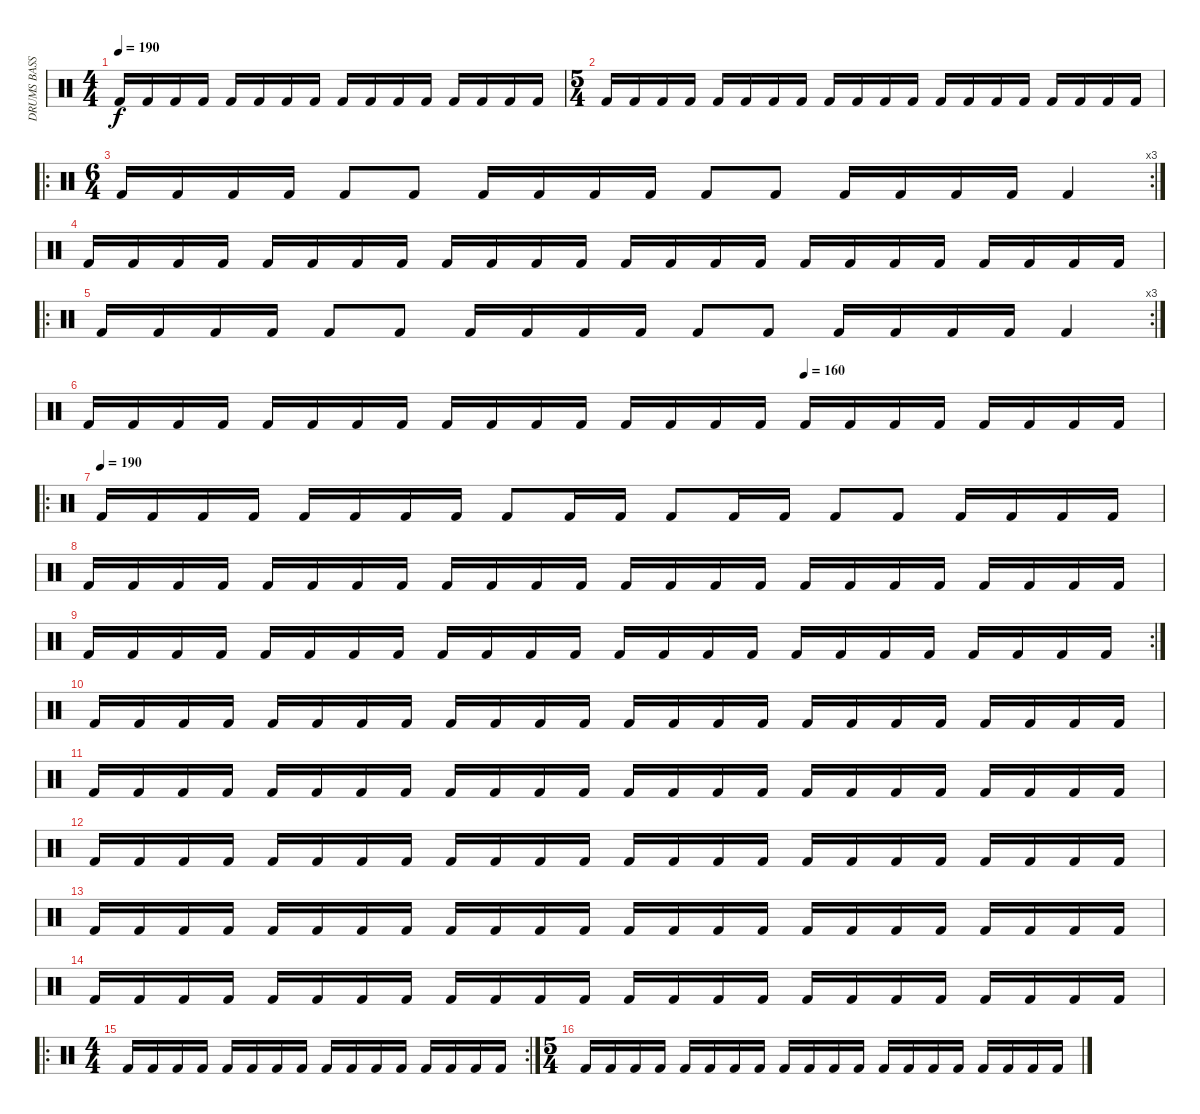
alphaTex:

\track ("DRUMS BASS" "DRUMS BASS") {instrument percussion}
\staff {score}
\articulation defaults
\ts (4 4)
\tempo 190
\clef neutral
\ks c "Kick (hit) 2".16{dy f} "Kick (hit) 2".16 "Kick (hit) 2".16 "Kick (hit) 2".16 "Kick (hit) 2".16 "Kick (hit) 2".16 "Kick (hit) 2".16 "Kick (hit) 2".16 "Kick (hit) 2".16 "Kick (hit) 2".16 "Kick (hit) 2".16 "Kick (hit) 2".16 "Kick (hit) 2".16 "Kick (hit) 2".16 "Kick (hit) 2".16 "Kick (hit) 2".16
|
\ts (5 4)
"Kick (hit) 2".16 "Kick (hit) 2".16 "Kick (hit) 2".16 "Kick (hit) 2".16 "Kick (hit) 2".16 "Kick (hit) 2".16 "Kick (hit) 2".16 "Kick (hit) 2".16 "Kick (hit) 2".16 "Kick (hit) 2".16 "Kick (hit) 2".16 "Kick (hit) 2".16 "Kick (hit) 2".16 "Kick (hit) 2".16 "Kick (hit) 2".16 "Kick (hit) 2".16 "Kick (hit) 2".16 "Kick (hit) 2".16 "Kick (hit) 2".16 "Kick (hit) 2".16 |
\ro
\rc 3
\ts (6 4)
"Kick (hit) 2".16 "Kick (hit) 2".16 "Kick (hit) 2".16 "Kick (hit) 2".16 "Kick (hit) 2".8 "Kick (hit) 2".8 "Kick (hit) 2".16 "Kick (hit) 2".16 "Kick (hit) 2".16 "Kick (hit) 2".16 "Kick (hit) 2".8 "Kick (hit) 2".8 "Kick (hit) 2".16 "Kick (hit) 2".16 "Kick (hit) 2".16 "Kick (hit) 2".16 "Kick (hit) 2".4 |
"Kick (hit) 2".16 "Kick (hit) 2".16 "Kick (hit) 2".16 "Kick (hit) 2".16 "Kick (hit) 2".16 "Kick (hit) 2".16 "Kick (hit) 2".16 "Kick (hit) 2".16 "Kick (hit) 2".16 "Kick (hit) 2".16 "Kick (hit) 2".16 "Kick (hit) 2".16 "Kick (hit) 2".16 "Kick (hit) 2".16 "Kick (hit) 2".16 "Kick (hit) 2".16 "Kick (hit) 2".16 "Kick (hit) 2".16 "Kick (hit) 2".16 "Kick (hit) 2".16 "Kick (hit) 2".16 "Kick (hit) 2".16 "Kick (hit) 2".16 "Kick (hit) 2".16 |
\ro
\rc 3 "Kick (hit) 2".16 "Kick (hit) 2".16 "Kick (hit) 2".16 "Kick (hit) 2".16 "Kick (hit) 2".8 "Kick (hit) 2".8 "Kick (hit) 2".16 "Kick (hit) 2".16 "Kick (hit) 2".16 "Kick (hit) 2".16 "Kick (hit) 2".8 "Kick (hit) 2".8 "Kick (hit) 2".16 "Kick (hit) 2".16 "Kick (hit) 2".16 "Kick (hit) 2".16 "Kick (hit) 2".4
|
\tempo (160 0.6666666666666666)
"Kick (hit) 2".16 "Kick (hit) 2".16 "Kick (hit) 2".16 "Kick (hit) 2".16 "Kick (hit) 2".16 "Kick (hit) 2".16 "Kick (hit) 2".16 "Kick (hit) 2".16 "Kick (hit) 2".16 "Kick (hit) 2".16 "Kick (hit) 2".16 "Kick (hit) 2".16 "Kick (hit) 2".16 "Kick (hit) 2".16 "Kick (hit) 2".16 "Kick (hit) 2".16 "Kick (hit) 2".16 "Kick (hit) 2".16 "Kick (hit) 2".16 "Kick (hit) 2".16 "Kick (hit) 2".16 "Kick (hit) 2".16 "Kick (hit) 2".16 "Kick (hit) 2".16 |
\ro
\tempo (190)
"Kick (hit) 2".16 "Kick (hit) 2".16 "Kick (hit) 2".16 "Kick (hit) 2".16 "Kick (hit) 2".16 "Kick (hit) 2".16 "Kick (hit) 2".16 "Kick (hit) 2".16 "Kick (hit) 2".8 "Kick (hit) 2".16 "Kick (hit) 2".16 "Kick (hit) 2".8 "Kick (hit) 2".16 "Kick (hit) 2".16 "Kick (hit) 2".8 "Kick (hit) 2".8 "Kick (hit) 2".16 "Kick (hit) 2".16 "Kick (hit) 2".16 "Kick (hit) 2".16 |
"Kick (hit) 2".16 "Kick (hit) 2".16 "Kick (hit) 2".16 "Kick (hit) 2".16 "Kick (hit) 2".16 "Kick (hit) 2".16 "Kick (hit) 2".16 "Kick (hit) 2".16 "Kick (hit) 2".16 "Kick (hit) 2".16 "Kick (hit) 2".16 "Kick (hit) 2".16 "Kick (hit) 2".16 "Kick (hit) 2".16 "Kick (hit) 2".16 "Kick (hit) 2".16 "Kick (hit) 2".16 "Kick (hit) 2".16 "Kick (hit) 2".16 "Kick (hit) 2".16 "Kick (hit) 2".16 "Kick (hit) 2".16 "Kick (hit) 2".16 "Kick (hit) 2".16 |
\rc 2 "Kick (hit) 2".16 "Kick (hit) 2".16 "Kick (hit) 2".16 "Kick (hit) 2".16 "Kick (hit) 2".16 "Kick (hit) 2".16 "Kick (hit) 2".16 "Kick (hit) 2".16 "Kick (hit) 2".16 "Kick (hit) 2".16 "Kick (hit) 2".16 "Kick (hit) 2".16 "Kick (hit) 2".16 "Kick (hit) 2".16 "Kick (hit) 2".16 "Kick (hit) 2".16 "Kick (hit) 2".16 "Kick (hit) 2".16 "Kick (hit) 2".16 "Kick (hit) 2".16 "Kick (hit) 2".16 "Kick (hit) 2".16 "Kick (hit) 2".16 "Kick (hit) 2".16
|
"Kick (hit) 2".16 "Kick (hit) 2".16 "Kick (hit) 2".16 "Kick (hit) 2".16 "Kick (hit) 2".16 "Kick (hit) 2".16 "Kick (hit) 2".16 "Kick (hit) 2".16 "Kick (hit) 2".16 "Kick (hit) 2".16 "Kick (hit) 2".16 "Kick (hit) 2".16 "Kick (hit) 2".16 "Kick (hit) 2".16 "Kick (hit) 2".16 "Kick (hit) 2".16 "Kick (hit) 2".16 "Kick (hit) 2".16 "Kick (hit) 2".16 "Kick (hit) 2".16 "Kick (hit) 2".16 "Kick (hit) 2".16 "Kick (hit) 2".16 "Kick (hit) 2".16 |
"Kick (hit) 2".16 "Kick (hit) 2".16 "Kick (hit) 2".16 "Kick (hit) 2".16 "Kick (hit) 2".16 "Kick (hit) 2".16 "Kick (hit) 2".16 "Kick (hit) 2".16 "Kick (hit) 2".16 "Kick (hit) 2".16 "Kick (hit) 2".16 "Kick (hit) 2".16 "Kick (hit) 2".16 "Kick (hit) 2".16 "Kick (hit) 2".16 "Kick (hit) 2".16 "Kick (hit) 2".16 "Kick (hit) 2".16 "Kick (hit) 2".16 "Kick (hit) 2".16 "Kick (hit) 2".16 "Kick (hit) 2".16 "Kick (hit) 2".16 "Kick (hit) 2".16 |
"Kick (hit) 2".16 "Kick (hit) 2".16 "Kick (hit) 2".16 "Kick (hit) 2".16 "Kick (hit) 2".16 "Kick (hit) 2".16 "Kick (hit) 2".16 "Kick (hit) 2".16 "Kick (hit) 2".16 "Kick (hit) 2".16 "Kick (hit) 2".16 "Kick (hit) 2".16 "Kick (hit) 2".16 "Kick (hit) 2".16 "Kick (hit) 2".16 "Kick (hit) 2".16 "Kick (hit) 2".16 "Kick (hit) 2".16 "Kick (hit) 2".16 "Kick (hit) 2".16 "Kick (hit) 2".16 "Kick (hit) 2".16 "Kick (hit) 2".16 "Kick (hit) 2".16 |
"Kick (hit) 2".16 "Kick (hit) 2".16 "Kick (hit) 2".16 "Kick (hit) 2".16 "Kick (hit) 2".16 "Kick (hit) 2".16 "Kick (hit) 2".16 "Kick (hit) 2".16 "Kick (hit) 2".16 "Kick (hit) 2".16 "Kick (hit) 2".16 "Kick (hit) 2".16 "Kick (hit) 2".16 "Kick (hit) 2".16 "Kick (hit) 2".16 "Kick (hit) 2".16 "Kick (hit) 2".16 "Kick (hit) 2".16 "Kick (hit) 2".16 "Kick (hit) 2".16 "Kick (hit) 2".16 "Kick (hit) 2".16 "Kick (hit) 2".16 "Kick (hit) 2".16 |
"Kick (hit) 2".16 "Kick (hit) 2".16 "Kick (hit) 2".16 "Kick (hit) 2".16 "Kick (hit) 2".16 "Kick (hit) 2".16 "Kick (hit) 2".16 "Kick (hit) 2".16 "Kick (hit) 2".16 "Kick (hit) 2".16 "Kick (hit) 2".16 "Kick (hit) 2".16 "Kick (hit) 2".16 "Kick (hit) 2".16 "Kick (hit) 2".16 "Kick (hit) 2".16 "Kick (hit) 2".16 "Kick (hit) 2".16 "Kick (hit) 2".16 "Kick (hit) 2".16 "Kick (hit) 2".16 "Kick (hit) 2".16 "Kick (hit) 2".16 "Kick (hit) 2".16 |
\ro
\rc 2
\ts (4 4)
"Kick (hit) 2".16 "Kick (hit) 2".16 "Kick (hit) 2".16 "Kick (hit) 2".16 "Kick (hit) 2".16 "Kick (hit) 2".16 "Kick (hit) 2".16 "Kick (hit) 2".16 "Kick (hit) 2".16 "Kick (hit) 2".16 "Kick (hit) 2".16 "Kick (hit) 2".16 "Kick (hit) 2".16 "Kick (hit) 2".16 "Kick (hit) 2".16 "Kick (hit) 2".16 |
\ts (5 4)
"Kick (hit) 2".16 "Kick (hit) 2".16 "Kick (hit) 2".16 "Kick (hit) 2".16 "Kick (hit) 2".16 "Kick (hit) 2".16 "Kick (hit) 2".16 "Kick (hit) 2".16 "Kick (hit) 2".16 "Kick (hit) 2".16 "Kick (hit) 2".16 "Kick (hit) 2".16 "Kick (hit) 2".16 "Kick (hit) 2".16 "Kick (hit) 2".16 "Kick (hit) 2".16 "Kick (hit) 2".16 "Kick (hit) 2".16 "Kick (hit) 2".16 "Kick (hit) 2".16
